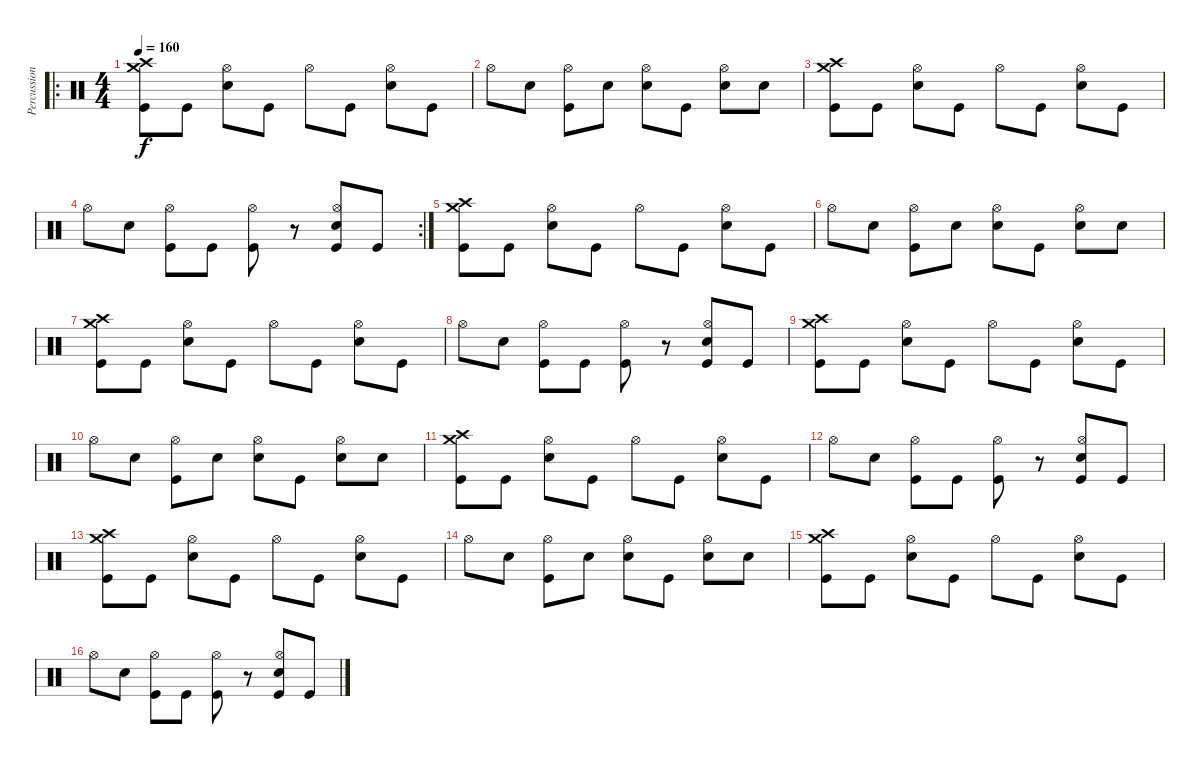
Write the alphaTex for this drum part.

\track ("Percussion" "Percussion") {instrument percussion}
\staff {score}
\articulation defaults
\ro
\ts (4 4)
\tempo 160
\clef neutral
\ks c
("Crash medium (hit)" "Crash high (hit)" "Kick (hit)").8{dy f} "Kick (hit)".8 ("Hi-Hat (open)" "Snare (hit) 2").8 "Kick (hit)".8 "Hi-Hat (open)".8 "Kick (hit)".8 ("Hi-Hat (open)" "Snare (hit) 2").8 "Kick (hit)".8 |
"Hi-Hat (open)".8 "Snare (hit) 2".8 ("Hi-Hat (open)" "Kick (hit)").8 "Snare (hit) 2".8 ("Hi-Hat (open)" "Snare (hit) 2").8 "Kick (hit)".8 ("Hi-Hat (open)" "Snare (hit) 2").8 "Snare (hit) 2".8 |
("Crash medium (hit)" "Crash high (hit)" "Kick (hit)").8 "Kick (hit)".8 ("Hi-Hat (open)" "Snare (hit) 2").8 "Kick (hit)".8 "Hi-Hat (open)".8 "Kick (hit)".8 ("Hi-Hat (open)" "Snare (hit) 2").8 "Kick (hit)".8 |
\rc 2 "Hi-Hat (open)".8 "Snare (hit) 2".8
("Hi-Hat (open)" "Kick (hit)").8 "Kick (hit)".8 ("Hi-Hat (open)" "Kick (hit)").8 r.8 ("Hi-Hat (open)" "Snare (hit) 2" "Kick (hit)").8 "Kick (hit)".8 |
("Crash medium (hit)" "Crash high (hit)" "Kick (hit)").8 "Kick (hit)".8 ("Hi-Hat (open)" "Snare (hit) 2").8 "Kick (hit)".8 "Hi-Hat (open)".8 "Kick (hit)".8 ("Hi-Hat (open)" "Snare (hit) 2").8 "Kick (hit)".8 |
"Hi-Hat (open)".8 "Snare (hit) 2".8 ("Hi-Hat (open)" "Kick (hit)").8 "Snare (hit) 2".8 ("Hi-Hat (open)" "Snare (hit) 2").8 "Kick (hit)".8 ("Hi-Hat (open)" "Snare (hit) 2").8 "Snare (hit) 2".8 |
("Crash medium (hit)" "Crash high (hit)" "Kick (hit)").8 "Kick (hit)".8 ("Hi-Hat (open)" "Snare (hit) 2").8 "Kick (hit)".8 "Hi-Hat (open)".8 "Kick (hit)".8 ("Hi-Hat (open)" "Snare (hit) 2").8 "Kick (hit)".8 |
"Hi-Hat (open)".8 "Snare (hit) 2".8 ("Hi-Hat (open)" "Kick (hit)").8 "Kick (hit)".8 ("Hi-Hat (open)" "Kick (hit)").8 r.8 ("Hi-Hat (open)" "Snare (hit) 2" "Kick (hit)").8 "Kick (hit)".8 |
("Crash medium (hit)" "Crash high (hit)" "Kick (hit)").8 "Kick (hit)".8 ("Hi-Hat (open)" "Snare (hit) 2").8 "Kick (hit)".8 "Hi-Hat (open)".8 "Kick (hit)".8 ("Hi-Hat (open)" "Snare (hit) 2").8 "Kick (hit)".8 |
"Hi-Hat (open)".8 "Snare (hit) 2".8 ("Hi-Hat (open)" "Kick (hit)").8 "Snare (hit) 2".8 ("Hi-Hat (open)" "Snare (hit) 2").8 "Kick (hit)".8 ("Hi-Hat (open)" "Snare (hit) 2").8 "Snare (hit) 2".8 |
("Crash medium (hit)" "Crash high (hit)" "Kick (hit)").8 "Kick (hit)".8 ("Hi-Hat (open)" "Snare (hit) 2").8 "Kick (hit)".8 "Hi-Hat (open)".8 "Kick (hit)".8 ("Hi-Hat (open)" "Snare (hit) 2").8 "Kick (hit)".8 |
"Hi-Hat (open)".8 "Snare (hit) 2".8 ("Hi-Hat (open)" "Kick (hit)").8 "Kick (hit)".8 ("Hi-Hat (open)" "Kick (hit)").8 r.8 ("Hi-Hat (open)" "Snare (hit) 2" "Kick (hit)").8 "Kick (hit)".8 |
("Crash medium (hit)" "Crash high (hit)" "Kick (hit)").8 "Kick (hit)".8 ("Hi-Hat (open)" "Snare (hit) 2").8 "Kick (hit)".8 "Hi-Hat (open)".8 "Kick (hit)".8 ("Hi-Hat (open)" "Snare (hit) 2").8 "Kick (hit)".8 |
"Hi-Hat (open)".8 "Snare (hit) 2".8 ("Hi-Hat (open)" "Kick (hit)").8 "Snare (hit) 2".8 ("Hi-Hat (open)" "Snare (hit) 2").8 "Kick (hit)".8 ("Hi-Hat (open)" "Snare (hit) 2").8 "Snare (hit) 2".8 |
("Crash medium (hit)" "Crash high (hit)" "Kick (hit)").8 "Kick (hit)".8 ("Hi-Hat (open)" "Snare (hit) 2").8 "Kick (hit)".8 "Hi-Hat (open)".8 "Kick (hit)".8 ("Hi-Hat (open)" "Snare (hit) 2").8 "Kick (hit)".8 |
"Hi-Hat (open)".8 "Snare (hit) 2".8 ("Hi-Hat (open)" "Kick (hit)").8 "Kick (hit)".8 ("Hi-Hat (open)" "Kick (hit)").8 r.8 ("Hi-Hat (open)" "Snare (hit) 2" "Kick (hit)").8 "Kick (hit)".8
